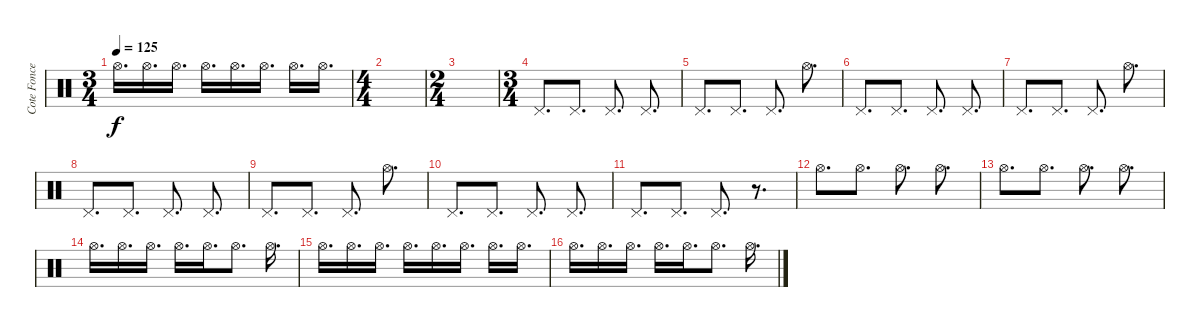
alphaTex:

\track ("Cote Foncea" "Cote Fonce") {instrument percussion}
\staff {score}
\articulation defaults
\ts (3 4)
\tempo 125
\clef neutral
\ks c "Hi-Hat (open)".16{d dy f} "Hi-Hat (open)".16{d} "Hi-Hat (open)".16{d} "Hi-Hat (open)".16{d} "Hi-Hat (open)".16{d} "Hi-Hat (open)".16{d} "Hi-Hat (open)".16{d} "Hi-Hat (open)".16{d}
|
\ts (4 4)
|
\ts (2 4)
|
\ts (3 4)
"Pedal Hi-Hat (hit)".8{d volume 16} "Pedal Hi-Hat (hit)".8{d} "Pedal Hi-Hat (hit)".8{d} "Pedal Hi-Hat (hit)".8{d} |
"Pedal Hi-Hat (hit)".8{d} "Pedal Hi-Hat (hit)".8{d} "Pedal Hi-Hat (hit)".8{d} "Hi-Hat (open)".8{d} |
"Pedal Hi-Hat (hit)".8{d} "Pedal Hi-Hat (hit)".8{d} "Pedal Hi-Hat (hit)".8{d} "Pedal Hi-Hat (hit)".8{d} |
"Pedal Hi-Hat (hit)".8{d} "Pedal Hi-Hat (hit)".8{d} "Pedal Hi-Hat (hit)".8{d} "Hi-Hat (open)".8{d} |
"Pedal Hi-Hat (hit)".8{d} "Pedal Hi-Hat (hit)".8{d} "Pedal Hi-Hat (hit)".8{d} "Pedal Hi-Hat (hit)".8{d} |
"Pedal Hi-Hat (hit)".8{d} "Pedal Hi-Hat (hit)".8{d} "Pedal Hi-Hat (hit)".8{d} "Hi-Hat (open)".8{d} |
"Pedal Hi-Hat (hit)".8{d} "Pedal Hi-Hat (hit)".8{d} "Pedal Hi-Hat (hit)".8{d} "Pedal Hi-Hat (hit)".8{d} |
"Pedal Hi-Hat (hit)".8{d} "Pedal Hi-Hat (hit)".8{d} "Pedal Hi-Hat (hit)".8{d} r.8{d} |
"Hi-Hat (open)".8{d volume 10} "Hi-Hat (open)".8{d} "Hi-Hat (open)".8{d} "Hi-Hat (open)".8{d} |
"Hi-Hat (open)".8{d} "Hi-Hat (open)".8{d} "Hi-Hat (open)".8{d} "Hi-Hat (open)".8{d} |
"Hi-Hat (open)".16{d} "Hi-Hat (open)".16{d} "Hi-Hat (open)".16{d} "Hi-Hat (open)".16{d} "Hi-Hat (open)".16{d} "Hi-Hat (open)".8{d} "Hi-Hat (open)".16{d} |
"Hi-Hat (open)".16{d} "Hi-Hat (open)".16{d} "Hi-Hat (open)".16{d} "Hi-Hat (open)".16{d} "Hi-Hat (open)".16{d} "Hi-Hat (open)".16{d} "Hi-Hat (open)".16{d} "Hi-Hat (open)".16{d} |
"Hi-Hat (open)".16{d} "Hi-Hat (open)".16{d} "Hi-Hat (open)".16{d} "Hi-Hat (open)".16{d} "Hi-Hat (open)".16{d} "Hi-Hat (open)".8{d} "Hi-Hat (open)".16{d}
